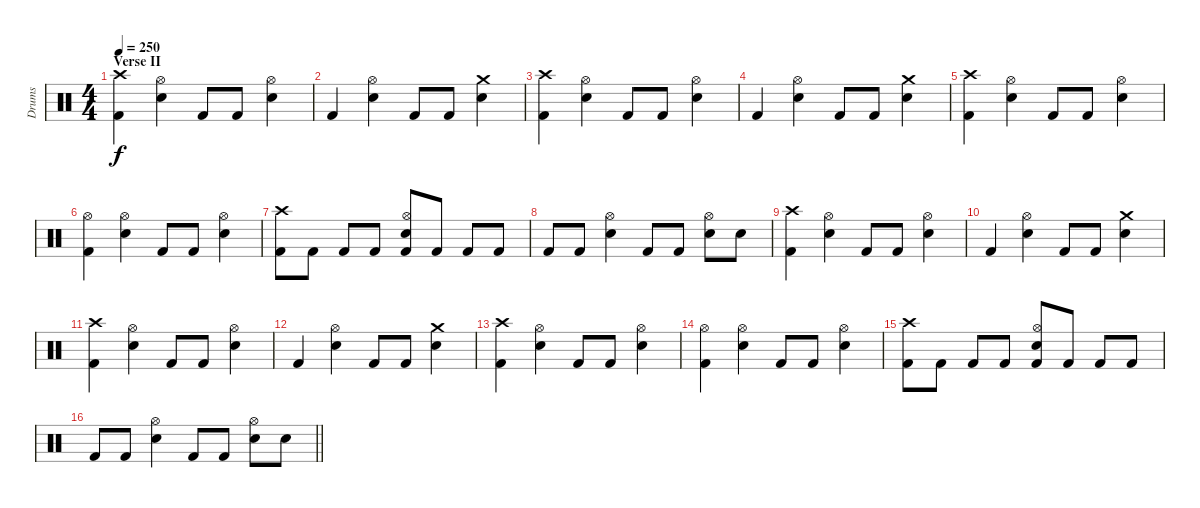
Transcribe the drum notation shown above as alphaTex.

\track ("Drums" "Drums") {instrument percussion}
\staff {score}
\articulation defaults
\ts (4 4)
\section ("" "Verse II")
\tempo 250
\clef neutral
\ks c
("Crash high (hit)" "Kick (hit) 2").4{dy f} ("Hi-Hat (open)" "Snare (hit) 2").4 "Kick (hit) 2".8 "Kick (hit) 2".8 ("Hi-Hat (open)" "Snare (hit) 2").4 |
"Kick (hit) 2".4 ("Hi-Hat (open)" "Snare (hit) 2").4 "Kick (hit) 2".8 "Kick (hit) 2".8 ("Crash medium (hit)" "Snare (hit) 2").4 |
("Crash high (hit)" "Kick (hit) 2").4 ("Hi-Hat (open)" "Snare (hit) 2").4 "Kick (hit) 2".8 "Kick (hit) 2".8 ("Hi-Hat (open)" "Snare (hit) 2").4 |
"Kick (hit) 2".4 ("Hi-Hat (open)" "Snare (hit) 2").4 "Kick (hit) 2".8 "Kick (hit) 2".8 ("Crash medium (hit)" "Snare (hit) 2").4 |
("Crash high (hit)" "Kick (hit) 2").4 ("Hi-Hat (open)" "Snare (hit) 2").4 "Kick (hit) 2".8 "Kick (hit) 2".8 ("Hi-Hat (open)" "Snare (hit) 2").4 |
("Hi-Hat (open)" "Kick (hit) 2").4 ("Hi-Hat (open)" "Snare (hit) 2").4 "Kick (hit) 2".8 "Kick (hit) 2".8 ("Hi-Hat (open)" "Snare (hit) 2").4 |
("Crash high (hit)" "Kick (hit) 2").8 "Kick (hit) 2".8 "Kick (hit) 2".8 "Kick (hit) 2".8 ("Hi-Hat (open)" "Snare (hit) 2" "Kick (hit) 2").8 "Kick (hit) 2".8 "Kick (hit) 2".8 "Kick (hit) 2".8 |
"Kick (hit) 2".8 "Kick (hit) 2".8 ("Hi-Hat (open)" "Snare (hit) 2").4 "Kick (hit) 2".8 "Kick (hit) 2".8 ("Hi-Hat (open)" "Snare (hit) 2").8 "Snare (hit) 2".8 |
("Crash high (hit)" "Kick (hit) 2").4 ("Hi-Hat (open)" "Snare (hit) 2").4 "Kick (hit) 2".8 "Kick (hit) 2".8 ("Hi-Hat (open)" "Snare (hit) 2").4 |
"Kick (hit) 2".4 ("Hi-Hat (open)" "Snare (hit) 2").4 "Kick (hit) 2".8 "Kick (hit) 2".8 ("Crash medium (hit)" "Snare (hit) 2").4 |
("Crash high (hit)" "Kick (hit) 2").4 ("Hi-Hat (open)" "Snare (hit) 2").4 "Kick (hit) 2".8 "Kick (hit) 2".8 ("Hi-Hat (open)" "Snare (hit) 2").4 |
"Kick (hit) 2".4 ("Hi-Hat (open)" "Snare (hit) 2").4 "Kick (hit) 2".8 "Kick (hit) 2".8 ("Crash medium (hit)" "Snare (hit) 2").4 |
("Crash high (hit)" "Kick (hit) 2").4 ("Hi-Hat (open)" "Snare (hit) 2").4 "Kick (hit) 2".8 "Kick (hit) 2".8 ("Hi-Hat (open)" "Snare (hit) 2").4 |
("Hi-Hat (open)" "Kick (hit) 2").4 ("Hi-Hat (open)" "Snare (hit) 2").4 "Kick (hit) 2".8 "Kick (hit) 2".8 ("Hi-Hat (open)" "Snare (hit) 2").4 |
("Crash high (hit)" "Kick (hit) 2").8 "Kick (hit) 2".8 "Kick (hit) 2".8 "Kick (hit) 2".8 ("Hi-Hat (open)" "Snare (hit) 2" "Kick (hit) 2").8 "Kick (hit) 2".8 "Kick (hit) 2".8 "Kick (hit) 2".8 |
\barLineRight lightlight "Kick (hit) 2".8 "Kick (hit) 2".8
("Hi-Hat (open)" "Snare (hit) 2").4 "Kick (hit) 2".8 "Kick (hit) 2".8 ("Hi-Hat (open)" "Snare (hit) 2").8 "Snare (hit) 2".8
